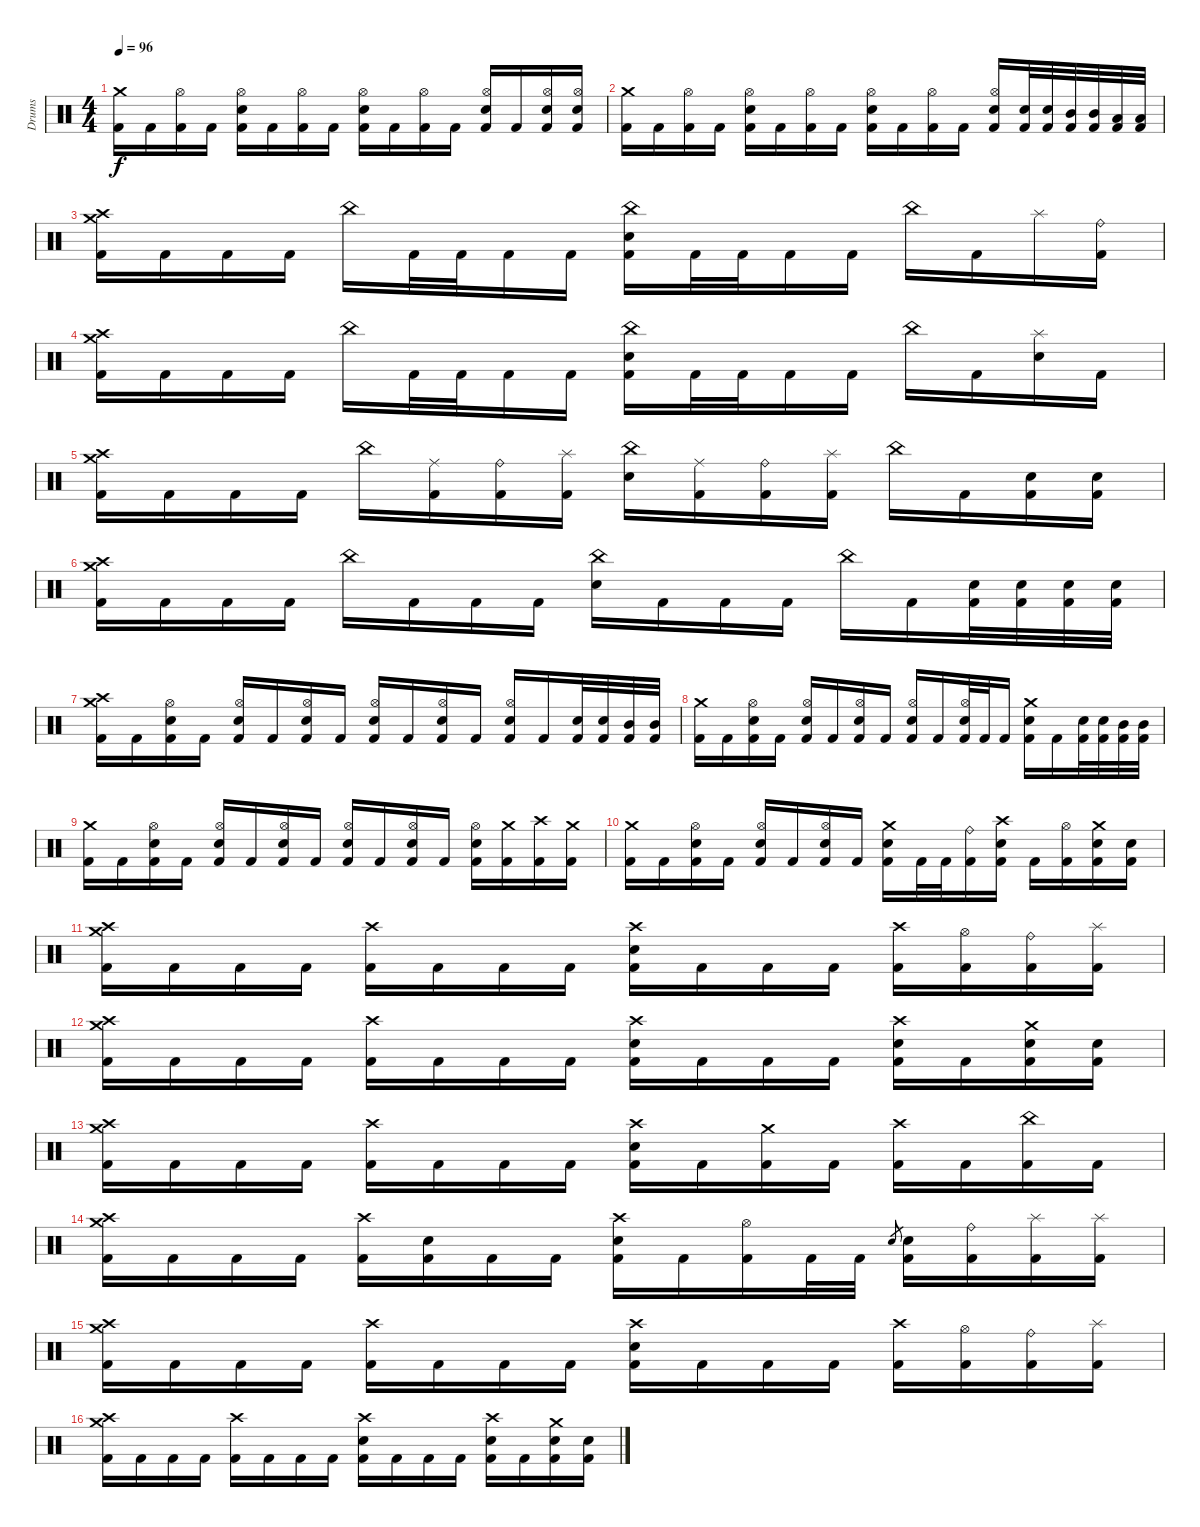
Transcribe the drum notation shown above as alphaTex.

\track ("Drums" "Drums") {instrument percussion}
\staff {score}
\articulation defaults
\ts (4 4)
\tempo 96
\clef neutral
\ks c
("Crash medium (hit)" "Kick (hit) 2").16{dy f} "Kick (hit) 2".16 ("Hi-Hat (open)" "Kick (hit) 2").16 "Kick (hit) 2".16 ("Hi-Hat (open)" "Electric Snare (hit)" "Kick (hit) 2").16 "Kick (hit) 2".16 ("Hi-Hat (open)" "Kick (hit) 2").16 "Kick (hit) 2".16 ("Hi-Hat (open)" "Electric Snare (hit)" "Kick (hit) 2").16 "Kick (hit) 2".16 ("Hi-Hat (open)" "Kick (hit) 2").16 "Kick (hit) 2".16 ("Hi-Hat (open)" "Electric Snare (hit)" "Kick (hit) 2").16 "Kick (hit) 2".16 ("Hi-Hat (open)" "Electric Snare (hit)" "Kick (hit) 2").16 ("Hi-Hat (open)" "Electric Snare (hit)" "Kick (hit) 2").16 |
("Crash medium (hit)" "Kick (hit) 2").16 "Kick (hit) 2".16 ("Hi-Hat (open)" "Kick (hit) 2").16 "Kick (hit) 2".16 ("Hi-Hat (open)" "Electric Snare (hit)" "Kick (hit) 2").16 "Kick (hit) 2".16 ("Hi-Hat (open)" "Kick (hit) 2").16 "Kick (hit) 2".16 ("Hi-Hat (open)" "Electric Snare (hit)" "Kick (hit) 2").16 "Kick (hit) 2".16 ("Hi-Hat (open)" "Kick (hit) 2").16 "Kick (hit) 2".16 ("Hi-Hat (open)" "Electric Snare (hit)" "Kick (hit) 2").16 ("Electric Snare (hit)" "Kick (hit) 2").32 ("Electric Snare (hit)" "Kick (hit) 2").32 ("Mid Tom (hit)" "Kick (hit) 2").32 ("Mid Tom (hit)" "Kick (hit) 2").32 ("Low Tom (hit)" "Kick (hit) 2").32 ("Low Tom (hit)" "Kick (hit) 2").32 |
("Crash medium (hit)" "Crash high (hit)" "Kick (hit) 2").16 "Kick (hit) 2".16 "Kick (hit) 2".16 "Kick (hit) 2".16 "China (hit)".16 "Kick (hit) 2".32 "Kick (hit) 2".32 "Kick (hit) 2".16 "Kick (hit) 2".16 ("China (hit)" "Electric Snare (hit)" "Kick (hit) 2").16 "Kick (hit) 2".32 "Kick (hit) 2".32 "Kick (hit) 2".16 "Kick (hit) 2".16 "China (hit)".16 "Kick (hit) 2".16 "Splash (hit)".16 ("Ride (bell)" "Kick (hit) 2").16 |
("Crash medium (hit)" "Crash high (hit)" "Kick (hit) 2").16 "Kick (hit) 2".16 "Kick (hit) 2".16 "Kick (hit) 2".16 "China (hit)".16 "Kick (hit) 2".32 "Kick (hit) 2".32 "Kick (hit) 2".16 "Kick (hit) 2".16 ("China (hit)" "Electric Snare (hit)" "Kick (hit) 2").16 "Kick (hit) 2".32 "Kick (hit) 2".32 "Kick (hit) 2".16 "Kick (hit) 2".16 "China (hit)".16 "Kick (hit) 2".16 ("Splash (hit)" "Electric Snare (hit)").16 "Kick (hit) 2".16 |
("Crash high (hit)" "Crash medium (hit)" "Kick (hit) 2").16 "Kick (hit) 2".16 "Kick (hit) 2".16 "Kick (hit) 2".16 "China (hit)".16 ("Ride (middle)" "Kick (hit) 2").16 ("Ride (bell)" "Kick (hit) 2").16 ("Splash (hit)" "Kick (hit) 2").16 ("China (hit)" "Electric Snare (hit)").16 ("Ride (middle)" "Kick (hit) 2").16 ("Ride (bell)" "Kick (hit) 2").16 ("Splash (hit)" "Kick (hit) 2").16 "China (hit)".16 "Kick (hit) 2".16 ("Electric Snare (hit)" "Kick (hit) 2").16 ("Electric Snare (hit)" "Kick (hit) 2").16 |
("Crash high (hit)" "Crash medium (hit)" "Kick (hit) 2").16 "Kick (hit) 2".16 "Kick (hit) 2".16 "Kick (hit) 2".16 "China (hit)".16 "Kick (hit) 2".16 "Kick (hit) 2".16 "Kick (hit) 2".16 ("China (hit)" "Electric Snare (hit)").16 "Kick (hit) 2".16 "Kick (hit) 2".16 "Kick (hit) 2".16 "China (hit)".16 "Kick (hit) 2".16 ("Electric Snare (hit)" "Kick (hit) 2").32 ("Electric Snare (hit)" "Kick (hit) 2").32 ("Electric Snare (hit)" "Kick (hit) 2").32 ("Electric Snare (hit)" "Kick (hit) 2").32 |
("Crash high (hit)" "Crash medium (hit)" "Kick (hit) 2").16 "Kick (hit) 2".16 ("Hi-Hat (open)" "Electric Snare (hit)" "Kick (hit) 2").16 "Kick (hit) 2".16 ("Hi-Hat (open)" "Electric Snare (hit)" "Kick (hit) 2").16 "Kick (hit) 2".16 ("Hi-Hat (open)" "Electric Snare (hit)" "Kick (hit) 2").16 "Kick (hit) 2".16 ("Hi-Hat (open)" "Electric Snare (hit)" "Kick (hit) 2").16 "Kick (hit) 2".16 ("Hi-Hat (open)" "Electric Snare (hit)" "Kick (hit) 2").16 "Kick (hit) 2".16 ("Hi-Hat (open)" "Electric Snare (hit)" "Kick (hit) 2").16 "Kick (hit) 2".16 ("Electric Snare (hit)" "Kick (hit) 2").32 ("Electric Snare (hit)" "Kick (hit) 2").32 ("Mid Tom (hit)" "Kick (hit) 2").32 ("Mid Tom (hit)" "Kick (hit) 2").32 |
("Crash medium (hit)" "Kick (hit) 2").16 "Kick (hit) 2".16 ("Hi-Hat (open)" "Electric Snare (hit)" "Kick (hit) 2").16 "Kick (hit) 2".16 ("Hi-Hat (open)" "Electric Snare (hit)" "Kick (hit) 2").16 "Kick (hit) 2".16 ("Hi-Hat (open)" "Electric Snare (hit)" "Kick (hit) 2").16 "Kick (hit) 2".16 ("Hi-Hat (open)" "Electric Snare (hit)" "Kick (hit) 2").16 "Kick (hit) 2".16 ("Hi-Hat (open)" "Electric Snare (hit)" "Kick (hit) 2").32 "Kick (hit) 2".32 "Kick (hit) 2".16 ("Crash medium (hit)" "Electric Snare (hit)" "Kick (hit) 2").16 "Kick (hit) 2".16 ("Electric Snare (hit)" "Kick (hit) 2").32 ("Electric Snare (hit)" "Kick (hit) 2").32 ("Mid Tom (hit)" "Kick (hit) 2").32 ("Mid Tom (hit)" "Kick (hit) 2").32 |
("Crash medium (hit)" "Kick (hit) 2").16 "Kick (hit) 2".16 ("Hi-Hat (open)" "Electric Snare (hit)" "Kick (hit) 2").16 "Kick (hit) 2".16 ("Hi-Hat (open)" "Electric Snare (hit)" "Kick (hit) 2").16 "Kick (hit) 2".16 ("Hi-Hat (open)" "Electric Snare (hit)" "Kick (hit) 2").16 "Kick (hit) 2".16 ("Hi-Hat (open)" "Electric Snare (hit)" "Kick (hit) 2").16 "Kick (hit) 2".16 ("Hi-Hat (open)" "Electric Snare (hit)" "Kick (hit) 2").16 "Kick (hit) 2".16 ("Hi-Hat (open)" "Electric Snare (hit)" "Kick (hit) 2").16 ("Crash medium (hit)" "Kick (hit) 2").16 ("Crash high (hit)" "Kick (hit) 2").16 ("Crash medium (hit)" "Kick (hit) 2").16 |
("Crash medium (hit)" "Kick (hit) 2").16 "Kick (hit) 2".16 ("Hi-Hat (open)" "Electric Snare (hit)" "Kick (hit) 2").16 "Kick (hit) 2".16 ("Hi-Hat (open)" "Electric Snare (hit)" "Kick (hit) 2").16 "Kick (hit) 2".16 ("Hi-Hat (open)" "Electric Snare (hit)" "Kick (hit) 2").16 "Kick (hit) 2".16 ("Crash medium (hit)" "Electric Snare (hit)" "Kick (hit) 2").16 "Kick (hit) 2".32 "Kick (hit) 2".32 ("Ride (bell)" "Kick (hit) 2").16 ("Crash high (hit)" "Electric Snare (hit)" "Kick (hit) 2").16 "Kick (hit) 2".16 ("Hi-Hat (open)" "Kick (hit) 2").16 ("Crash medium (hit)" "Electric Snare (hit)" "Kick (hit) 2").16 ("Electric Snare (hit)" "Kick (hit) 2").16 |
("Crash high (hit)" "Crash medium (hit)" "Kick (hit) 2").16 "Kick (hit) 2".16 "Kick (hit) 2".16 "Kick (hit) 2".16 ("Crash high (hit)" "Kick (hit) 2").16 "Kick (hit) 2".16 "Kick (hit) 2".16 "Kick (hit) 2".16 ("Crash high (hit)" "Electric Snare (hit)" "Kick (hit) 2").16 "Kick (hit) 2".16 "Kick (hit) 2".16 "Kick (hit) 2".16 ("Crash high (hit)" "Kick (hit) 2").16 ("Hi-Hat (open)" "Kick (hit) 2").16 ("Ride (bell)" "Kick (hit) 2").16 ("Splash (hit)" "Kick (hit) 2").16 |
("Crash high (hit)" "Crash medium (hit)" "Kick (hit) 2").16 "Kick (hit) 2".16 "Kick (hit) 2".16 "Kick (hit) 2".16 ("Crash high (hit)" "Kick (hit) 2").16 "Kick (hit) 2".16 "Kick (hit) 2".16 "Kick (hit) 2".16 ("Crash high (hit)" "Electric Snare (hit)" "Kick (hit) 2").16 "Kick (hit) 2".16 "Kick (hit) 2".16 "Kick (hit) 2".16 ("Crash high (hit)" "Electric Snare (hit)" "Kick (hit) 2").16 "Kick (hit) 2".16 ("Crash medium (hit)" "Electric Snare (hit)" "Kick (hit) 2").16 ("Electric Snare (hit)" "Kick (hit) 2").16 |
("Crash high (hit)" "Crash medium (hit)" "Kick (hit) 2").16 "Kick (hit) 2".16 "Kick (hit) 2".16 "Kick (hit) 2".16 ("Crash high (hit)" "Kick (hit) 2").16 "Kick (hit) 2".16 "Kick (hit) 2".16 "Kick (hit) 2".16 ("Crash high (hit)" "Electric Snare (hit)" "Kick (hit) 2").16 "Kick (hit) 2".16 ("Crash medium (hit)" "Kick (hit) 2").16 "Kick (hit) 2".16 ("Crash high (hit)" "Kick (hit) 2").16 "Kick (hit) 2".16 ("China (hit)" "Kick (hit) 2").16 "Kick (hit) 2".16 |
("Crash high (hit)" "Crash medium (hit)" "Kick (hit) 2").16 "Kick (hit) 2".16 "Kick (hit) 2".16 "Kick (hit) 2".16 ("Crash high (hit)" "Kick (hit) 2").16 ("Electric Snare (hit)" "Kick (hit) 2").16 "Kick (hit) 2".16 "Kick (hit) 2".16 ("Crash high (hit)" "Electric Snare (hit)" "Kick (hit) 2").16 "Kick (hit) 2".16 ("Hi-Hat (open)" "Kick (hit) 2").16 "Kick (hit) 2".32 "Kick (hit) 2".32 "Electric Snare (hit)".8{gr} ("Electric Snare (hit)" "Kick (hit) 2").16 ("Ride (bell)" "Kick (hit) 2").16 ("Splash (hit)" "Kick (hit) 2").16 ("Splash (hit)" "Kick (hit) 2").16 |
("Crash high (hit)" "Crash medium (hit)" "Kick (hit) 2").16 "Kick (hit) 2".16 "Kick (hit) 2".16 "Kick (hit) 2".16 ("Crash high (hit)" "Kick (hit) 2").16 "Kick (hit) 2".16 "Kick (hit) 2".16 "Kick (hit) 2".16 ("Crash high (hit)" "Electric Snare (hit)" "Kick (hit) 2").16 "Kick (hit) 2".16 "Kick (hit) 2".16 "Kick (hit) 2".16 ("Crash high (hit)" "Kick (hit) 2").16 ("Hi-Hat (open)" "Kick (hit) 2").16 ("Ride (bell)" "Kick (hit) 2").16 ("Splash (hit)" "Kick (hit) 2").16 |
("Crash high (hit)" "Crash medium (hit)" "Kick (hit) 2").16 "Kick (hit) 2".16 "Kick (hit) 2".16 "Kick (hit) 2".16 ("Crash high (hit)" "Kick (hit) 2").16 "Kick (hit) 2".16 "Kick (hit) 2".16 "Kick (hit) 2".16 ("Crash high (hit)" "Electric Snare (hit)" "Kick (hit) 2").16 "Kick (hit) 2".16 "Kick (hit) 2".16 "Kick (hit) 2".16 ("Crash high (hit)" "Electric Snare (hit)" "Kick (hit) 2").16 "Kick (hit) 2".16 ("Crash medium (hit)" "Electric Snare (hit)" "Kick (hit) 2").16 ("Electric Snare (hit)" "Kick (hit) 2").16
